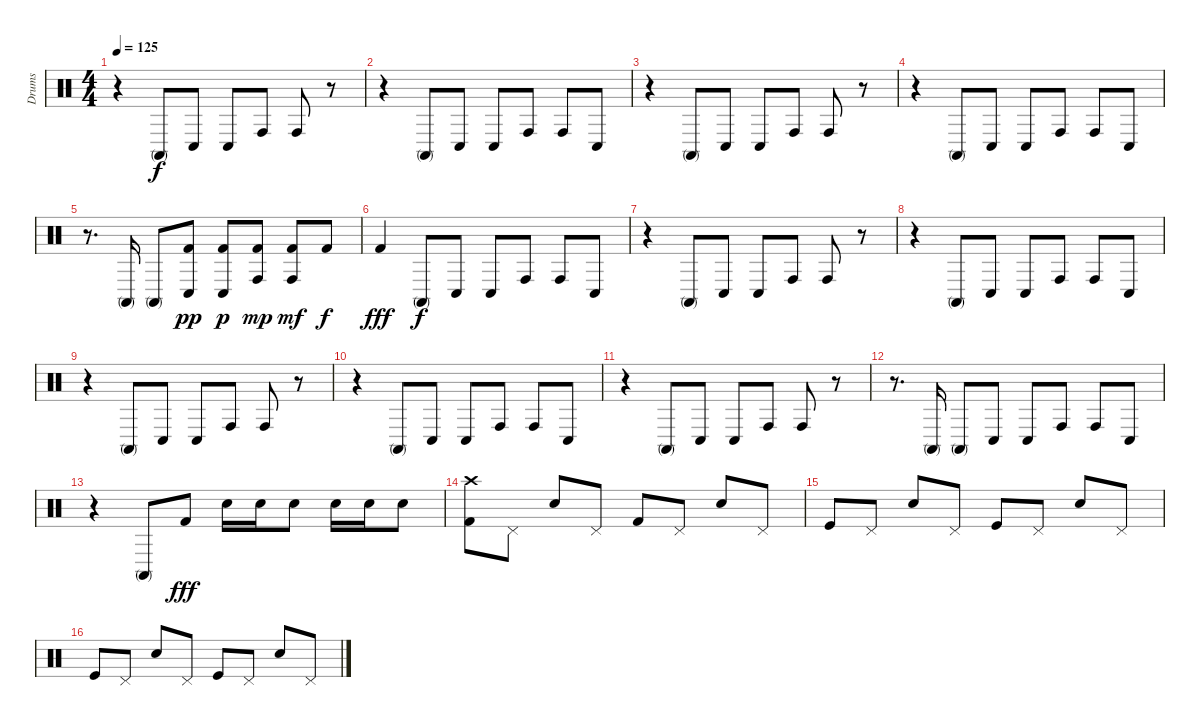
\track ("Drums" "Drums") {instrument percussion}
\staff {score}
\articulation defaults
\ts (4 4)
\tempo 125
\clef neutral
\ks c
r.4{dy f} "Conga high (mute)".8 "Conga low (hit)".8 "Conga low (hit)".8 "Conga high (hit)".8 "Conga high (hit)".8 r.8 |
r.4 "Conga high (mute)".8 "Conga low (hit)".8 "Conga low (hit)".8 "Conga high (hit)".8 "Conga high (hit)".8 "Conga low (hit)".8 |
r.4 "Conga high (mute)".8 "Conga low (hit)".8 "Conga low (hit)".8 "Conga high (hit)".8 "Conga high (hit)".8 r.8 |
r.4 "Conga high (mute)".8 "Conga low (hit)".8 "Conga low (hit)".8 "Conga high (hit)".8 "Conga high (hit)".8 "Conga low (hit)".8 |
r.8{d} "Conga high (mute)".16 "Conga high (mute)".8 ("Kick (hit) 2" "Conga low (hit)").8{dy pp} ("Kick (hit) 2" "Conga low (hit)").8{dy p} ("Kick (hit) 2" "Conga high (hit)").8{dy mp} ("Kick (hit) 2" "Conga high (hit)").8{dy mf} "Kick (hit) 2".8{dy f} |
"Kick (hit) 2".4{dy fff} "Conga high (mute)".8{dy f} "Conga low (hit)".8 "Conga low (hit)".8 "Conga high (hit)".8 "Conga high (hit)".8 "Conga low (hit)".8 |
r.4 "Conga high (mute)".8 "Conga low (hit)".8 "Conga low (hit)".8 "Conga high (hit)".8 "Conga high (hit)".8 r.8 |
r.4 "Conga high (mute)".8 "Conga low (hit)".8 "Conga low (hit)".8 "Conga high (hit)".8 "Conga high (hit)".8 "Conga low (hit)".8 |
r.4 "Conga high (mute)".8 "Conga low (hit)".8 "Conga low (hit)".8 "Conga high (hit)".8 "Conga high (hit)".8 r.8 |
r.4 "Conga high (mute)".8 "Conga low (hit)".8 "Conga low (hit)".8 "Conga high (hit)".8 "Conga high (hit)".8 "Conga low (hit)".8 |
r.4 "Conga high (mute)".8 "Conga low (hit)".8 "Conga low (hit)".8 "Conga high (hit)".8 "Conga high (hit)".8 r.8 |
r.8{d} "Conga high (mute)".16 "Conga high (mute)".8 "Conga low (hit)".8 "Conga low (hit)".8 "Conga high (hit)".8 "Conga high (hit)".8 "Conga low (hit)".8 |
r.4 "Conga high (mute)".8 "Kick (hit) 2".8{dy fff} "Electric Snare (hit)".16 "Electric Snare (hit)".16 "Electric Snare (hit)".8 "Electric Snare (hit)".16 "Electric Snare (hit)".16 "Electric Snare (hit)".8 |
("Crash high (hit)" "Kick (hit) 2").8 "Pedal Hi-Hat (hit)".8 "Electric Snare (hit)".8 "Pedal Hi-Hat (hit)".8 "Kick (hit) 2".8 "Pedal Hi-Hat (hit)".8 "Electric Snare (hit)".8 "Pedal Hi-Hat (hit)".8 |
"Kick (hit)".8 "Pedal Hi-Hat (hit)".8 "Electric Snare (hit)".8 "Pedal Hi-Hat (hit)".8 "Kick (hit)".8 "Pedal Hi-Hat (hit)".8 "Electric Snare (hit)".8 "Pedal Hi-Hat (hit)".8 |
"Kick (hit)".8 "Pedal Hi-Hat (hit)".8 "Electric Snare (hit)".8 "Pedal Hi-Hat (hit)".8 "Kick (hit)".8 "Pedal Hi-Hat (hit)".8 "Electric Snare (hit)".8 "Pedal Hi-Hat (hit)".8
